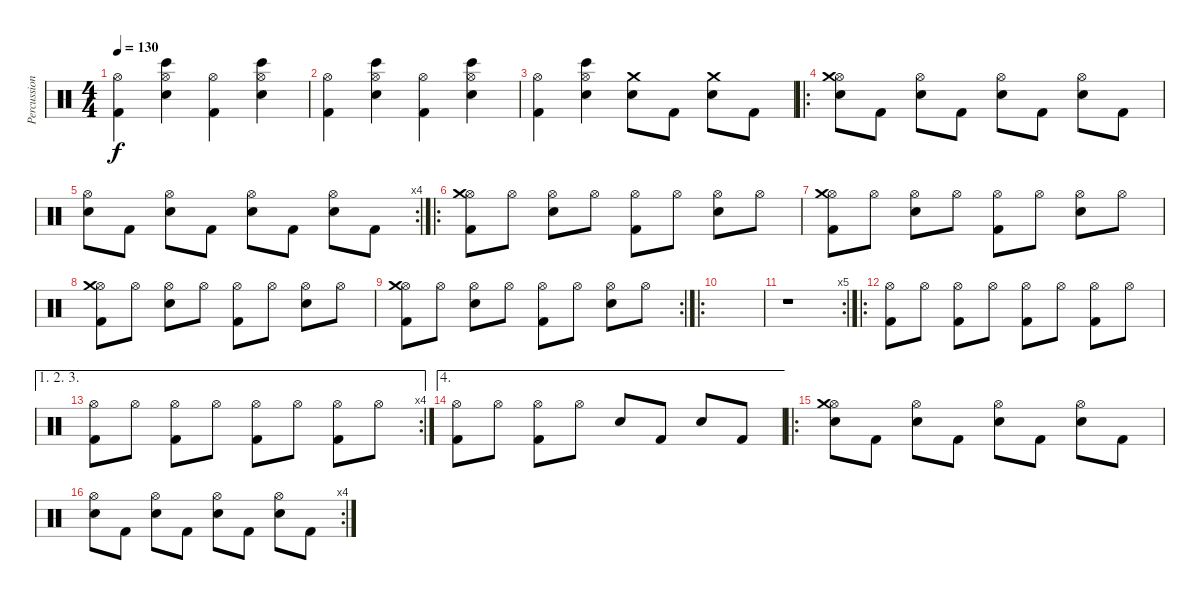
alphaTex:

\track ("Percussion" "Percussion") {instrument percussion}
\staff {score}
\articulation defaults
\ts (4 4)
\tempo 130
\clef neutral
\ks c
("Kick (hit) 2" "Hi-Hat (open)").4{dy f} ("Snare (hit) 2" "Hi-Hat (open)" "Bongo High (hit)").4 ("Kick (hit) 2" "Hi-Hat (open)").4 ("Snare (hit) 2" "Hi-Hat (open)" "Bongo High (hit)").4 |
("Kick (hit) 2" "Hi-Hat (open)").4 ("Snare (hit) 2" "Hi-Hat (open)" "Bongo High (hit)").4 ("Kick (hit) 2" "Hi-Hat (open)").4 ("Snare (hit) 2" "Hi-Hat (open)" "Bongo High (hit)").4 |
("Kick (hit) 2" "Hi-Hat (open)").4 ("Snare (hit) 2" "Hi-Hat (open)" "Bongo High (hit)").4 ("Snare (hit) 2" "Crash medium (hit)").8 "Kick (hit) 2".8 ("Snare (hit) 2" "Crash medium (hit)").8 "Kick (hit) 2".8 |
\ro
("Snare (hit) 2" "Hi-Hat (open)" "Crash medium (hit)").8 "Kick (hit) 2".8 ("Snare (hit) 2" "Hi-Hat (open)").8 "Kick (hit) 2".8 ("Snare (hit) 2" "Hi-Hat (open)").8 "Kick (hit) 2".8 ("Snare (hit) 2" "Hi-Hat (open)").8 "Kick (hit) 2".8 |
\rc 4
("Snare (hit) 2" "Hi-Hat (open)").8 "Kick (hit) 2".8 ("Snare (hit) 2" "Hi-Hat (open)").8 "Kick (hit) 2".8 ("Snare (hit) 2" "Hi-Hat (open)").8 "Kick (hit) 2".8 ("Snare (hit) 2" "Hi-Hat (open)").8 "Kick (hit) 2".8 |
\ro
("Hi-Hat (open)" "Kick (hit) 2" "Crash medium (hit)").8 "Hi-Hat (open)".8 ("Hi-Hat (open)" "Snare (hit) 2").8 "Hi-Hat (open)".8 ("Hi-Hat (open)" "Kick (hit) 2").8 "Hi-Hat (open)".8 ("Hi-Hat (open)" "Snare (hit) 2").8 "Hi-Hat (open)".8 |
("Hi-Hat (open)" "Kick (hit) 2" "Crash medium (hit)").8 "Hi-Hat (open)".8 ("Hi-Hat (open)" "Snare (hit) 2").8 "Hi-Hat (open)".8 ("Hi-Hat (open)" "Kick (hit) 2").8 "Hi-Hat (open)".8 ("Hi-Hat (open)" "Snare (hit) 2").8 "Hi-Hat (open)".8 |
("Hi-Hat (open)" "Kick (hit) 2" "Crash medium (hit)").8 "Hi-Hat (open)".8 ("Hi-Hat (open)" "Snare (hit) 2").8 "Hi-Hat (open)".8 ("Hi-Hat (open)" "Kick (hit) 2").8 "Hi-Hat (open)".8 ("Hi-Hat (open)" "Snare (hit) 2").8 "Hi-Hat (open)".8 |
\rc 2
("Hi-Hat (open)" "Kick (hit) 2" "Crash medium (hit)").8 "Hi-Hat (open)".8 ("Hi-Hat (open)" "Snare (hit) 2").8 "Hi-Hat (open)".8 ("Hi-Hat (open)" "Kick (hit) 2").8 "Hi-Hat (open)".8 ("Hi-Hat (open)" "Snare (hit) 2").8 "Hi-Hat (open)".8 |
\ro
|
\rc 5
r.1 |
\ro
("Hi-Hat (open)" "Kick (hit) 2").8 "Hi-Hat (open)".8 ("Hi-Hat (open)" "Kick (hit) 2").8 "Hi-Hat (open)".8 ("Hi-Hat (open)" "Kick (hit) 2").8 "Hi-Hat (open)".8 ("Hi-Hat (open)" "Kick (hit) 2").8 "Hi-Hat (open)".8 |
\ae (1 2 3)
\rc 4
("Hi-Hat (open)" "Kick (hit) 2").8 "Hi-Hat (open)".8 ("Hi-Hat (open)" "Kick (hit) 2").8 "Hi-Hat (open)".8 ("Hi-Hat (open)" "Kick (hit) 2").8 "Hi-Hat (open)".8 ("Hi-Hat (open)" "Kick (hit) 2").8 "Hi-Hat (open)".8 |
\ae 4
("Hi-Hat (open)" "Kick (hit) 2").8 "Hi-Hat (open)".8 ("Hi-Hat (open)" "Kick (hit) 2").8 "Hi-Hat (open)".8 "Snare (hit) 2".8 "Kick (hit) 2".8 "Snare (hit) 2".8 "Kick (hit) 2".8 |
\ro
("Snare (hit) 2" "Hi-Hat (open)" "Crash medium (hit)").8 "Kick (hit) 2".8 ("Snare (hit) 2" "Hi-Hat (open)").8 "Kick (hit) 2".8 ("Snare (hit) 2" "Hi-Hat (open)").8 "Kick (hit) 2".8 ("Snare (hit) 2" "Hi-Hat (open)").8 "Kick (hit) 2".8 |
\rc 4
("Snare (hit) 2" "Hi-Hat (open)").8 "Kick (hit) 2".8 ("Snare (hit) 2" "Hi-Hat (open)").8 "Kick (hit) 2".8 ("Snare (hit) 2" "Hi-Hat (open)").8 "Kick (hit) 2".8 ("Snare (hit) 2" "Hi-Hat (open)").8 "Kick (hit) 2".8
